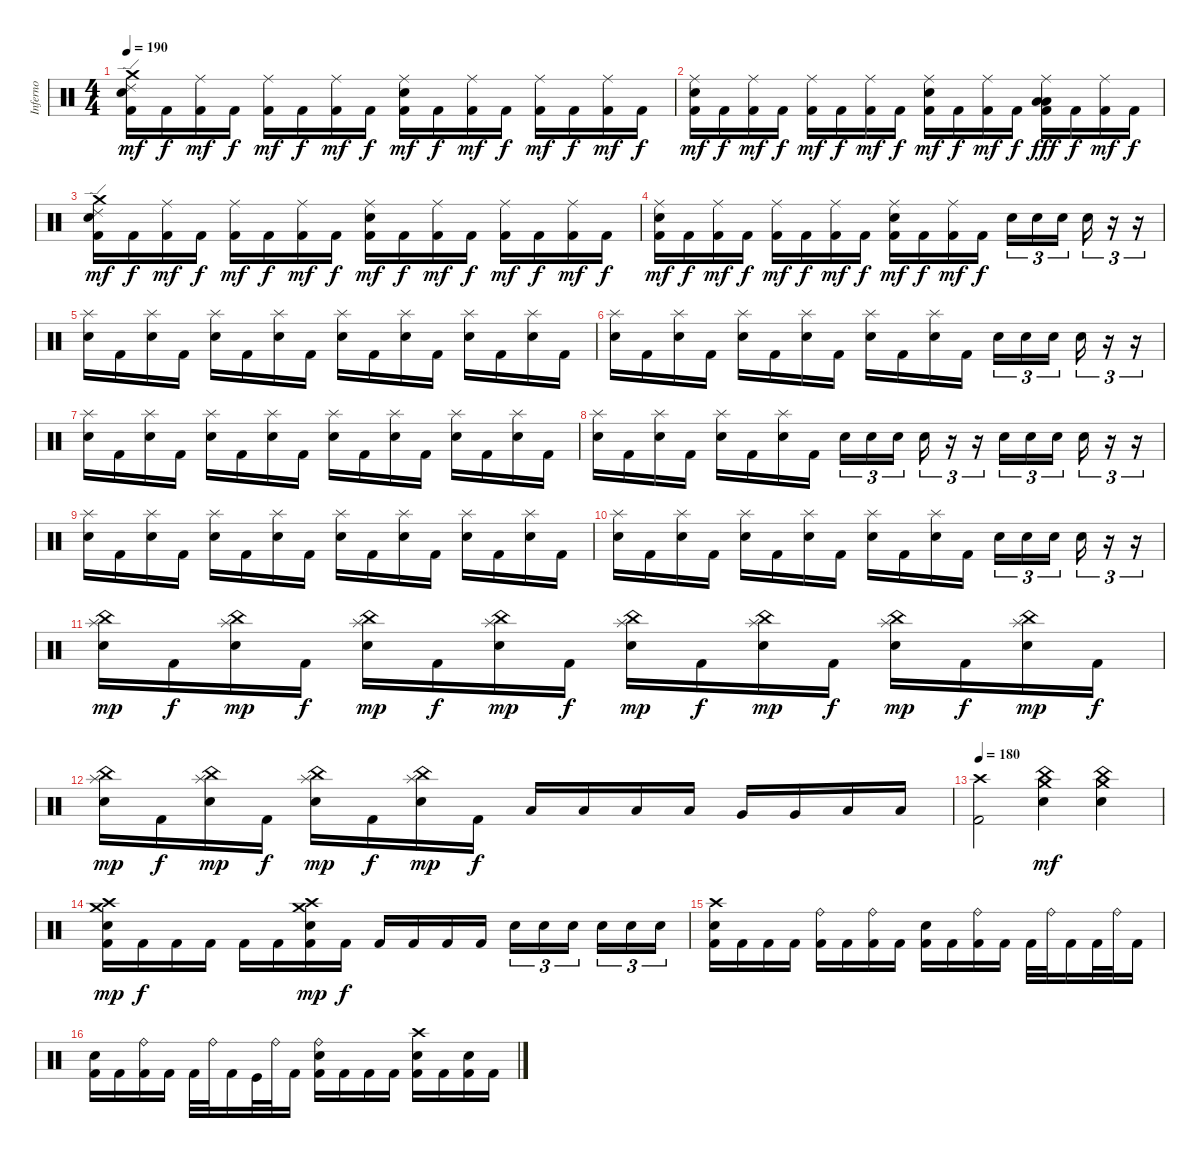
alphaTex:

\track ("Inferno" "Inferno") {instrument percussion}
\staff {score}
\articulation defaults
\ts (4 4)
\tempo 190
\clef neutral
\ks c
("Ride (edge) 2" "Crash medium (hit)" "Snare (hit) 2" "Kick (hit) 2").16{dy mf} "Kick (hit) 2".16{dy f} ("Ride (middle)" "Kick (hit) 2").16{dy mf} "Kick (hit) 2".16{dy f} ("Ride (middle)" "Kick (hit) 2").16{dy mf} "Kick (hit) 2".16{dy f} ("Ride (middle)" "Kick (hit) 2").16{dy mf} "Kick (hit) 2".16{dy f} ("Ride (middle)" "Snare (hit) 2" "Kick (hit) 2").16{dy mf} "Kick (hit) 2".16{dy f} ("Ride (middle)" "Kick (hit) 2").16{dy mf} "Kick (hit) 2".16{dy f} ("Ride (middle)" "Kick (hit) 2").16{dy mf} "Kick (hit) 2".16{dy f} ("Ride (middle)" "Kick (hit) 2").16{dy mf} "Kick (hit) 2".16{dy f} |
("Ride (middle)" "Snare (hit) 2" "Kick (hit) 2").16{dy mf} "Kick (hit) 2".16{dy f} ("Ride (middle)" "Kick (hit) 2").16{dy mf} "Kick (hit) 2".16{dy f} ("Ride (middle)" "Kick (hit) 2").16{dy mf} "Kick (hit) 2".16{dy f} ("Ride (middle)" "Kick (hit) 2").16{dy mf} "Kick (hit) 2".16{dy f} ("Ride (middle)" "Snare (hit) 2" "Kick (hit) 2").16{dy mf} "Kick (hit) 2".16{dy f} ("Ride (middle)" "Kick (hit) 2").16{dy mf} "Kick (hit) 2".16{dy f} ("Ride (middle)" "Low Floor Tom (hit)" "Low Floor Tom (hit)" "Kick (hit) 2").16{dy fff} "Kick (hit) 2".16{dy f} ("Ride (middle)" "Kick (hit) 2").16{dy mf} "Kick (hit) 2".16{dy f} |
("Ride (edge) 2" "Crash medium (hit)" "Snare (hit) 2" "Kick (hit) 2").16{dy mf} "Kick (hit) 2".16{dy f} ("Ride (middle)" "Kick (hit) 2").16{dy mf} "Kick (hit) 2".16{dy f} ("Ride (middle)" "Kick (hit) 2").16{dy mf} "Kick (hit) 2".16{dy f} ("Ride (middle)" "Kick (hit) 2").16{dy mf} "Kick (hit) 2".16{dy f} ("Ride (middle)" "Snare (hit) 2" "Kick (hit) 2").16{dy mf} "Kick (hit) 2".16{dy f} ("Ride (middle)" "Kick (hit) 2").16{dy mf} "Kick (hit) 2".16{dy f} ("Ride (middle)" "Kick (hit) 2").16{dy mf} "Kick (hit) 2".16{dy f} ("Ride (middle)" "Kick (hit) 2").16{dy mf} "Kick (hit) 2".16{dy f} |
("Ride (middle)" "Snare (hit) 2" "Kick (hit) 2").16{dy mf} "Kick (hit) 2".16{dy f} ("Ride (middle)" "Kick (hit) 2").16{dy mf} "Kick (hit) 2".16{dy f} ("Ride (middle)" "Kick (hit) 2").16{dy mf} "Kick (hit) 2".16{dy f} ("Ride (middle)" "Kick (hit) 2").16{dy mf} "Kick (hit) 2".16{dy f} ("Ride (middle)" "Snare (hit) 2" "Kick (hit) 2").16{dy mf} "Kick (hit) 2".16{dy f} ("Ride (middle)" "Kick (hit) 2").16{dy mf} "Kick (hit) 2".16{dy f} "Snare (hit) 2".16{tu (3 2)} "Snare (hit) 2".16{tu (3 2)} "Snare (hit) 2".16{tu (3 2)} "Snare (hit) 2".16{tu (3 2)} r.16{tu (3 2)} r.16{tu (3 2)} |
("Splash (hit)" "Snare (hit) 2").16 "Kick (hit) 2".16 ("Splash (hit)" "Snare (hit) 2").16 "Kick (hit) 2".16 ("Splash (hit)" "Snare (hit) 2").16 "Kick (hit) 2".16 ("Splash (hit)" "Snare (hit) 2").16 "Kick (hit) 2".16 ("Splash (hit)" "Snare (hit) 2").16 "Kick (hit) 2".16 ("Splash (hit)" "Snare (hit) 2").16 "Kick (hit) 2".16 ("Splash (hit)" "Snare (hit) 2").16 "Kick (hit) 2".16 ("Splash (hit)" "Snare (hit) 2").16 "Kick (hit) 2".16 |
("Splash (hit)" "Snare (hit) 2").16 "Kick (hit) 2".16 ("Splash (hit)" "Snare (hit) 2").16 "Kick (hit) 2".16 ("Splash (hit)" "Snare (hit) 2").16 "Kick (hit) 2".16 ("Splash (hit)" "Snare (hit) 2").16 "Kick (hit) 2".16 ("Splash (hit)" "Snare (hit) 2").16 "Kick (hit) 2".16 ("Splash (hit)" "Snare (hit) 2").16 "Kick (hit) 2".16 "Snare (hit) 2".16{tu (3 2)} "Snare (hit) 2".16{tu (3 2)} "Snare (hit) 2".16{tu (3 2)} "Snare (hit) 2".16{tu (3 2)} r.16{tu (3 2)} r.16{tu (3 2)} |
("Splash (hit)" "Snare (hit) 2").16 "Kick (hit) 2".16 ("Splash (hit)" "Snare (hit) 2").16 "Kick (hit) 2".16 ("Splash (hit)" "Snare (hit) 2").16 "Kick (hit) 2".16 ("Splash (hit)" "Snare (hit) 2").16 "Kick (hit) 2".16 ("Splash (hit)" "Snare (hit) 2").16 "Kick (hit) 2".16 ("Splash (hit)" "Snare (hit) 2").16 "Kick (hit) 2".16 ("Splash (hit)" "Snare (hit) 2").16 "Kick (hit) 2".16 ("Splash (hit)" "Snare (hit) 2").16 "Kick (hit) 2".16 |
("Splash (hit)" "Snare (hit) 2").16 "Kick (hit) 2".16 ("Splash (hit)" "Snare (hit) 2").16 "Kick (hit) 2".16 ("Splash (hit)" "Snare (hit) 2").16 "Kick (hit) 2".16 ("Splash (hit)" "Snare (hit) 2").16 "Kick (hit) 2".16 "Snare (hit) 2".16{tu (3 2)} "Snare (hit) 2".16{tu (3 2)} "Snare (hit) 2".16{tu (3 2)} "Snare (hit) 2".16{tu (3 2)} r.16{tu (3 2)} r.16{tu (3 2)} "Snare (hit) 2".16{tu (3 2)} "Snare (hit) 2".16{tu (3 2)} "Snare (hit) 2".16{tu (3 2)} "Snare (hit) 2".16{tu (3 2)} r.16{tu (3 2)} r.16{tu (3 2)} |
("Splash (hit)" "Snare (hit) 2").16 "Kick (hit) 2".16 ("Splash (hit)" "Snare (hit) 2").16 "Kick (hit) 2".16 ("Splash (hit)" "Snare (hit) 2").16 "Kick (hit) 2".16 ("Splash (hit)" "Snare (hit) 2").16 "Kick (hit) 2".16 ("Splash (hit)" "Snare (hit) 2").16 "Kick (hit) 2".16 ("Splash (hit)" "Snare (hit) 2").16 "Kick (hit) 2".16 ("Splash (hit)" "Snare (hit) 2").16 "Kick (hit) 2".16 ("Splash (hit)" "Snare (hit) 2").16 "Kick (hit) 2".16 |
("Splash (hit)" "Snare (hit) 2").16 "Kick (hit) 2".16 ("Splash (hit)" "Snare (hit) 2").16 "Kick (hit) 2".16 ("Splash (hit)" "Snare (hit) 2").16 "Kick (hit) 2".16 ("Splash (hit)" "Snare (hit) 2").16 "Kick (hit) 2".16 ("Splash (hit)" "Snare (hit) 2").16 "Kick (hit) 2".16 ("Splash (hit)" "Snare (hit) 2").16 "Kick (hit) 2".16 "Snare (hit) 2".16{tu (3 2)} "Snare (hit) 2".16{tu (3 2)} "Snare (hit) 2".16{tu (3 2)} "Snare (hit) 2".16{tu (3 2)} r.16{tu (3 2)} r.16{tu (3 2)} |
("Splash (hit)" "China (hit)" "Snare (hit) 2").16{dy mp} "Kick (hit) 2".16{dy f} ("Splash (hit)" "China (hit)" "Snare (hit) 2").16{dy mp} "Kick (hit) 2".16{dy f} ("Splash (hit)" "China (hit)" "Snare (hit) 2").16{dy mp} "Kick (hit) 2".16{dy f} ("Splash (hit)" "China (hit)" "Snare (hit) 2").16{dy mp} "Kick (hit) 2".16{dy f} ("Splash (hit)" "China (hit)" "Snare (hit) 2").16{dy mp} "Kick (hit) 2".16{dy f} ("Splash (hit)" "China (hit)" "Snare (hit) 2").16{dy mp} "Kick (hit) 2".16{dy f} ("Splash (hit)" "China (hit)" "Snare (hit) 2").16{dy mp} "Kick (hit) 2".16{dy f} ("Splash (hit)" "China (hit)" "Snare (hit) 2").16{dy mp} "Kick (hit) 2".16{dy f} |
("Splash (hit)" "China (hit)" "Snare (hit) 2").16{dy mp} "Kick (hit) 2".16{dy f} ("Splash (hit)" "China (hit)" "Snare (hit) 2").16{dy mp} "Kick (hit) 2".16{dy f} ("Splash (hit)" "China (hit)" "Snare (hit) 2").16{dy mp} "Kick (hit) 2".16{dy f} ("Splash (hit)" "China (hit)" "Snare (hit) 2").16{dy mp} "Kick (hit) 2".16{dy f} "Low Tom (hit)".16 "Low Tom (hit)".16 "Low Tom (hit)".16 "Low Tom (hit)".16 "Very Low Tom (hit)".16 "Very Low Tom (hit)".16 "Low Floor Tom (hit)".16 "Low Floor Tom (hit)".16 |
\tempo 180
("Crash high (hit)" "Kick (hit) 2").2 ("Crash medium (hit)" "China (hit)" "Snare (hit) 2").4{dy mf} ("Crash medium (hit)" "China (hit)" "Snare (hit) 2").4 |
("Crash medium (hit)" "Crash high (hit)" "Snare (hit) 2" "Kick (hit) 2").16{dy mp} "Kick (hit) 2".16{dy f} "Kick (hit) 2".16 "Kick (hit) 2".16 "Kick (hit) 2".16 "Kick (hit) 2".16 ("Crash medium (hit)" "Crash high (hit)" "Snare (hit) 2" "Kick (hit) 2").16{dy mp} "Kick (hit) 2".16{dy f} "Kick (hit) 2".16 "Kick (hit) 2".16 "Kick (hit) 2".16 "Kick (hit) 2".16 "Snare (hit) 2".16{tu (3 2)} "Snare (hit) 2".16{tu (3 2)} "Snare (hit) 2".16{tu (3 2)} "Snare (hit) 2".16{tu (3 2)} "Snare (hit) 2".16{tu (3 2)} "Snare (hit) 2".16{tu (3 2)} |
("Crash high (hit)" "Snare (hit) 2" "Kick (hit) 2").16 "Kick (hit) 2".16 "Kick (hit) 2".16 "Kick (hit) 2".16 ("Ride (bell)" "Kick (hit) 2").16 "Kick (hit) 2".16 ("Ride (bell)" "Kick (hit) 2").16 "Kick (hit) 2".16 ("Snare (hit) 2" "Kick (hit) 2").16 "Kick (hit) 2".16 ("Ride (bell)" "Kick (hit) 2").16 "Kick (hit) 2".16 "Kick (hit) 2".32 "Ride (bell)".32 "Kick (hit) 2".16 "Kick (hit) 2".32 "Ride (bell)".32 "Kick (hit) 2".16 |
("Snare (hit) 2" "Kick (hit) 2").16 "Kick (hit) 2".16 ("Ride (bell)" "Kick (hit) 2").16 "Kick (hit) 2".16 "Kick (hit) 2".32 "Ride (bell)".32 "Kick (hit) 2".16 "Kick (hit)".32 "Ride (bell)".32 "Kick (hit) 2".16 ("Ride (bell)" "Snare (hit) 2" "Kick (hit) 2").16 "Kick (hit) 2".16 "Kick (hit) 2".16 "Kick (hit) 2".16 ("Crash high (hit)" "Snare (hit) 2" "Kick (hit) 2").16 "Kick (hit) 2".16 ("Snare (hit) 2" "Kick (hit) 2").16 "Kick (hit) 2".16
